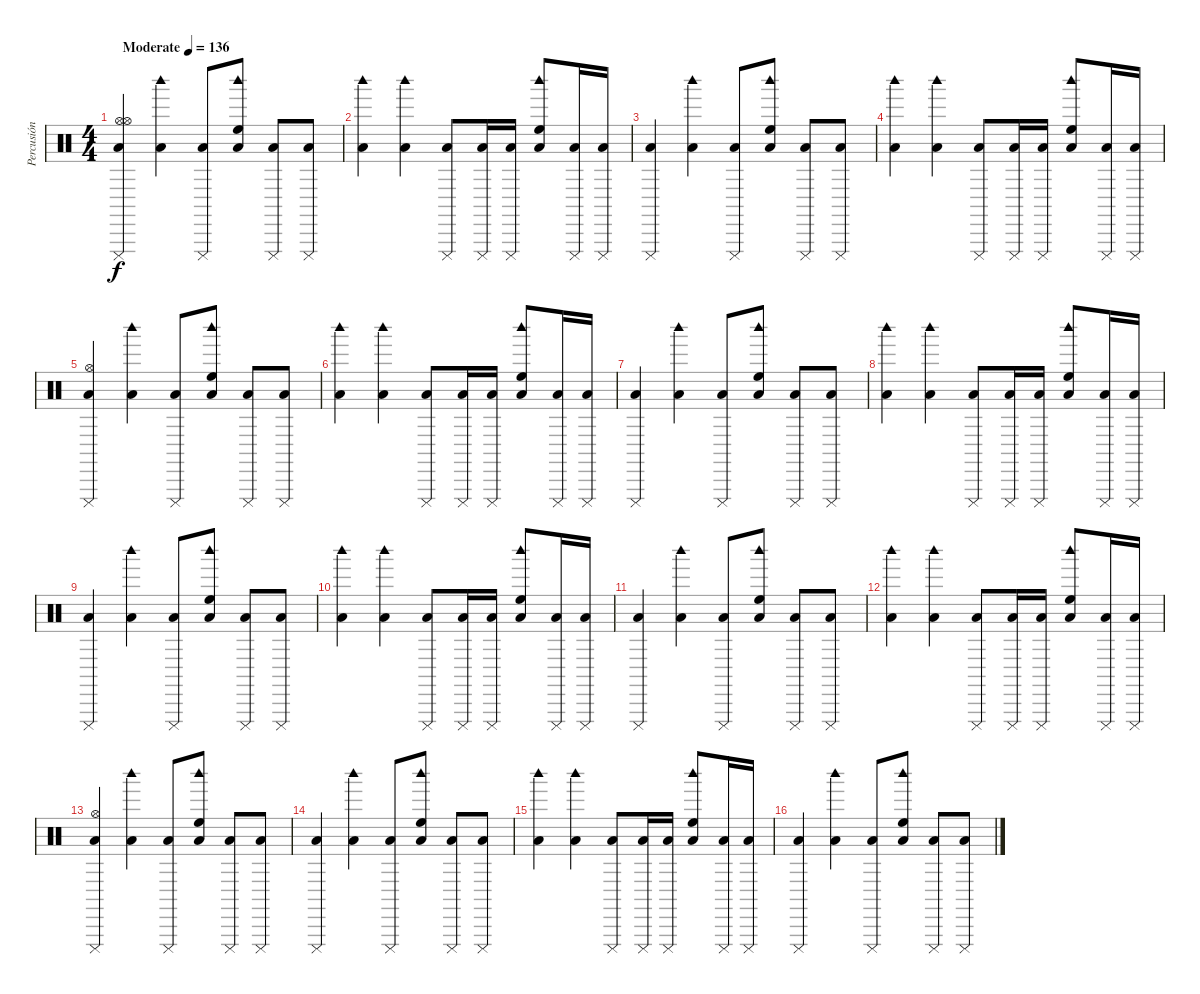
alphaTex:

\track ("Percusión" "Percusión") {instrument percussion}
\staff {score}
\articulation defaults
\ts (4 4)
\tempo (136 "Moderate")
\clef neutral
\ks c
("Cuica (mute)" "Hi-Hat (open)" "Low Tom (hit)" "Hi-Hat (open)").4{dy f volume 13} ("Woodblock high (hit)" "Low Tom (hit)").4 ("Cuica (mute)" "Low Tom (hit)").8 ("Woodblock high (hit)" "Low Tom (hit)" "High Floor Tom (hit)").8 ("Cuica (mute)" "Low Tom (hit)").8 ("Cuica (mute)" "Low Tom (hit)").8 |
("Woodblock high (hit)" "Low Tom (hit)").4 ("Woodblock high (hit)" "Low Tom (hit)").4 ("Cuica (mute)" "Low Tom (hit)").8 ("Cuica (mute)" "Low Tom (hit)").16 ("Cuica (mute)" "Low Tom (hit)").16 ("Woodblock high (hit)" "Low Tom (hit)" "High Floor Tom (hit)").8 ("Cuica (mute)" "Low Tom (hit)").16 ("Cuica (mute)" "Low Tom (hit)").16 |
("Cuica (mute)" "Low Tom (hit)").4 ("Woodblock high (hit)" "Low Tom (hit)").4 ("Cuica (mute)" "Low Tom (hit)").8 ("Woodblock high (hit)" "Low Tom (hit)" "High Floor Tom (hit)").8 ("Cuica (mute)" "Low Tom (hit)").8 ("Cuica (mute)" "Low Tom (hit)").8 |
("Woodblock high (hit)" "Low Tom (hit)").4 ("Woodblock high (hit)" "Low Tom (hit)").4 ("Cuica (mute)" "Low Tom (hit)").8 ("Cuica (mute)" "Low Tom (hit)").16 ("Cuica (mute)" "Low Tom (hit)").16 ("Woodblock high (hit)" "Low Tom (hit)" "High Floor Tom (hit)").8 ("Cuica (mute)" "Low Tom (hit)").16 ("Cuica (mute)" "Low Tom (hit)").16 |
("Cuica (mute)" "Hi-Hat (open)" "Low Tom (hit)").4{volume 13} ("Woodblock high (hit)" "Low Tom (hit)").4 ("Cuica (mute)" "Low Tom (hit)").8 ("Woodblock high (hit)" "Low Tom (hit)" "High Floor Tom (hit)").8 ("Cuica (mute)" "Low Tom (hit)").8 ("Cuica (mute)" "Low Tom (hit)").8 |
("Woodblock high (hit)" "Low Tom (hit)").4 ("Woodblock high (hit)" "Low Tom (hit)").4 ("Cuica (mute)" "Low Tom (hit)").8 ("Cuica (mute)" "Low Tom (hit)").16 ("Cuica (mute)" "Low Tom (hit)").16 ("Woodblock high (hit)" "Low Tom (hit)" "High Floor Tom (hit)").8 ("Cuica (mute)" "Low Tom (hit)").16 ("Cuica (mute)" "Low Tom (hit)").16 |
("Cuica (mute)" "Low Tom (hit)").4{volume 13} ("Woodblock high (hit)" "Low Tom (hit)").4 ("Cuica (mute)" "Low Tom (hit)").8 ("Woodblock high (hit)" "Low Tom (hit)" "High Floor Tom (hit)").8 ("Cuica (mute)" "Low Tom (hit)").8 ("Cuica (mute)" "Low Tom (hit)").8 |
("Woodblock high (hit)" "Low Tom (hit)").4 ("Woodblock high (hit)" "Low Tom (hit)").4 ("Cuica (mute)" "Low Tom (hit)").8 ("Cuica (mute)" "Low Tom (hit)").16 ("Cuica (mute)" "Low Tom (hit)").16 ("Woodblock high (hit)" "Low Tom (hit)" "High Floor Tom (hit)").8 ("Cuica (mute)" "Low Tom (hit)").16 ("Cuica (mute)" "Low Tom (hit)").16 |
("Cuica (mute)" "Low Tom (hit)").4{volume 13} ("Woodblock high (hit)" "Low Tom (hit)").4 ("Cuica (mute)" "Low Tom (hit)").8 ("Woodblock high (hit)" "Low Tom (hit)" "High Floor Tom (hit)").8 ("Cuica (mute)" "Low Tom (hit)").8 ("Cuica (mute)" "Low Tom (hit)").8 |
("Woodblock high (hit)" "Low Tom (hit)").4 ("Woodblock high (hit)" "Low Tom (hit)").4 ("Cuica (mute)" "Low Tom (hit)").8 ("Cuica (mute)" "Low Tom (hit)").16 ("Cuica (mute)" "Low Tom (hit)").16 ("Woodblock high (hit)" "Low Tom (hit)" "High Floor Tom (hit)").8 ("Cuica (mute)" "Low Tom (hit)").16 ("Cuica (mute)" "Low Tom (hit)").16 |
("Cuica (mute)" "Low Tom (hit)").4{volume 13} ("Woodblock high (hit)" "Low Tom (hit)").4 ("Cuica (mute)" "Low Tom (hit)").8 ("Woodblock high (hit)" "Low Tom (hit)" "High Floor Tom (hit)").8 ("Cuica (mute)" "Low Tom (hit)").8 ("Cuica (mute)" "Low Tom (hit)").8 |
("Woodblock high (hit)" "Low Tom (hit)").4 ("Woodblock high (hit)" "Low Tom (hit)").4 ("Cuica (mute)" "Low Tom (hit)").8 ("Cuica (mute)" "Low Tom (hit)").16 ("Cuica (mute)" "Low Tom (hit)").16 ("Woodblock high (hit)" "Low Tom (hit)" "High Floor Tom (hit)").8 ("Cuica (mute)" "Low Tom (hit)").16 ("Cuica (mute)" "Low Tom (hit)").16 |
("Cuica (mute)" "Hi-Hat (open)" "Low Tom (hit)").4{volume 13} ("Woodblock high (hit)" "Low Tom (hit)").4 ("Cuica (mute)" "Low Tom (hit)").8 ("Woodblock high (hit)" "Low Tom (hit)" "High Floor Tom (hit)").8 ("Cuica (mute)" "Low Tom (hit)").8 ("Cuica (mute)" "Low Tom (hit)").8 |
("Cuica (mute)" "Low Tom (hit)").4{volume 13} ("Woodblock high (hit)" "Low Tom (hit)").4 ("Cuica (mute)" "Low Tom (hit)").8 ("Woodblock high (hit)" "Low Tom (hit)" "High Floor Tom (hit)").8 ("Cuica (mute)" "Low Tom (hit)").8 ("Cuica (mute)" "Low Tom (hit)").8 |
("Woodblock high (hit)" "Low Tom (hit)").4 ("Woodblock high (hit)" "Low Tom (hit)").4 ("Cuica (mute)" "Low Tom (hit)").8 ("Cuica (mute)" "Low Tom (hit)").16 ("Cuica (mute)" "Low Tom (hit)").16 ("Woodblock high (hit)" "Low Tom (hit)" "High Floor Tom (hit)").8 ("Cuica (mute)" "Low Tom (hit)").16 ("Cuica (mute)" "Low Tom (hit)").16 |
("Cuica (mute)" "Low Tom (hit)").4{volume 13} ("Woodblock high (hit)" "Low Tom (hit)").4 ("Cuica (mute)" "Low Tom (hit)").8 ("Woodblock high (hit)" "Low Tom (hit)" "High Floor Tom (hit)").8 ("Cuica (mute)" "Low Tom (hit)").8 ("Cuica (mute)" "Low Tom (hit)").8
